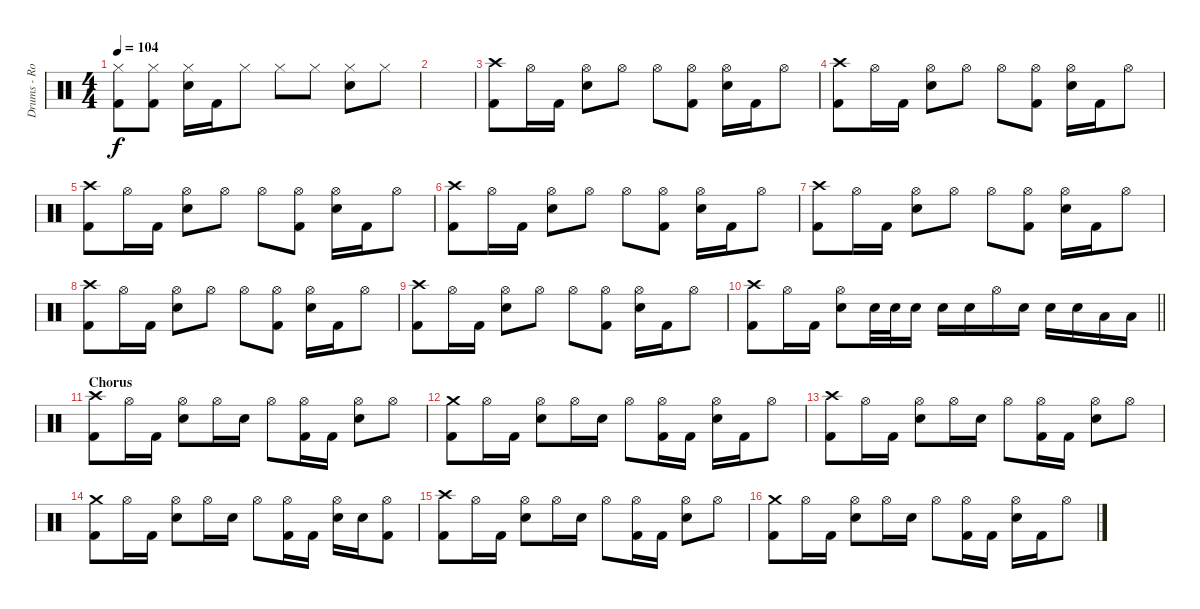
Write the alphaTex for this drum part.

\track ("Drums - Rob Bourdon" "Drums - Ro") {instrument percussion}
\staff {score}
\articulation defaults
\ts (4 4)
\tempo 104
\clef neutral
\ks c
("Hi-Hat (closed)" "Kick (hit) 2").8{dy f} ("Hi-Hat (closed)" "Kick (hit) 2").8 ("Hi-Hat (closed)" "Snare (hit) 2").16 "Kick (hit) 2".16 "Hi-Hat (closed)".8 "Hi-Hat (closed)".8 "Hi-Hat (closed)".8 ("Hi-Hat (closed)" "Snare (hit) 2").8 "Hi-Hat (closed)".8 |
|
("Crash high (hit)" "Kick (hit) 2").8 "Hi-Hat (open)".16 "Kick (hit) 2".16 ("Hi-Hat (open)" "Snare (hit) 2").8 "Hi-Hat (open)".8 "Hi-Hat (open)".8 ("Hi-Hat (open)" "Kick (hit) 2").8 ("Hi-Hat (open)" "Snare (hit) 2").16 "Kick (hit) 2".16 "Hi-Hat (open)".8 |
("Crash high (hit)" "Kick (hit) 2").8 "Hi-Hat (open)".16 "Kick (hit) 2".16 ("Hi-Hat (open)" "Snare (hit) 2").8 "Hi-Hat (open)".8 "Hi-Hat (open)".8 ("Hi-Hat (open)" "Kick (hit) 2").8 ("Hi-Hat (open)" "Snare (hit) 2").16 "Kick (hit) 2".16 "Hi-Hat (open)".8 |
("Crash high (hit)" "Kick (hit) 2").8 "Hi-Hat (open)".16 "Kick (hit) 2".16 ("Hi-Hat (open)" "Snare (hit) 2").8 "Hi-Hat (open)".8 "Hi-Hat (open)".8 ("Hi-Hat (open)" "Kick (hit) 2").8 ("Hi-Hat (open)" "Snare (hit) 2").16 "Kick (hit) 2".16 "Hi-Hat (open)".8 |
("Crash high (hit)" "Kick (hit) 2").8 "Hi-Hat (open)".16 "Kick (hit) 2".16 ("Hi-Hat (open)" "Snare (hit) 2").8 "Hi-Hat (open)".8 "Hi-Hat (open)".8 ("Hi-Hat (open)" "Kick (hit) 2").8 ("Hi-Hat (open)" "Snare (hit) 2").16 "Kick (hit) 2".16 "Hi-Hat (open)".8 |
("Crash high (hit)" "Kick (hit) 2").8 "Hi-Hat (open)".16 "Kick (hit) 2".16 ("Hi-Hat (open)" "Snare (hit) 2").8 "Hi-Hat (open)".8 "Hi-Hat (open)".8 ("Hi-Hat (open)" "Kick (hit) 2").8 ("Hi-Hat (open)" "Snare (hit) 2").16 "Kick (hit) 2".16 "Hi-Hat (open)".8 |
("Crash high (hit)" "Kick (hit) 2").8 "Hi-Hat (open)".16 "Kick (hit) 2".16 ("Hi-Hat (open)" "Snare (hit) 2").8 "Hi-Hat (open)".8 "Hi-Hat (open)".8 ("Hi-Hat (open)" "Kick (hit) 2").8 ("Hi-Hat (open)" "Snare (hit) 2").16 "Kick (hit) 2".16 "Hi-Hat (open)".8 |
("Crash high (hit)" "Kick (hit) 2").8 "Hi-Hat (open)".16 "Kick (hit) 2".16 ("Hi-Hat (open)" "Snare (hit) 2").8 "Hi-Hat (open)".8 "Hi-Hat (open)".8 ("Hi-Hat (open)" "Kick (hit) 2").8 ("Hi-Hat (open)" "Snare (hit) 2").16 "Kick (hit) 2".16 "Hi-Hat (open)".8 |
\barLineRight lightlight
("Crash high (hit)" "Kick (hit) 2").8 "Hi-Hat (open)".16 "Kick (hit) 2".16 ("Hi-Hat (open)" "Snare (hit) 2").8 "Snare (hit) 2".32 "Snare (hit) 2".32 "Snare (hit) 2".16 "Snare (hit) 2".16 "Snare (hit) 2".16 "Hi-Hat (open)".16 "Snare (hit) 2".16 "Snare (hit) 2".16 "Snare (hit) 2".16 "Low Tom (hit)".16 "Low Tom (hit)".16 |
\section ("" "Chorus")
("Crash high (hit)" "Kick (hit) 2").8 "Hi-Hat (open)".16 "Kick (hit) 2".16 ("Hi-Hat (open)" "Snare (hit) 2").8 "Hi-Hat (open)".16 "Snare (hit) 2".16 "Hi-Hat (open)".8 ("Hi-Hat (open)" "Kick (hit) 2").16 "Kick (hit) 2".16 ("Hi-Hat (open)" "Snare (hit) 2").8 "Hi-Hat (open)".8 |
("Crash medium (hit)" "Kick (hit) 2").8 "Hi-Hat (open)".16 "Kick (hit) 2".16 ("Hi-Hat (open)" "Snare (hit) 2").8 "Hi-Hat (open)".16 "Snare (hit) 2".16 "Hi-Hat (open)".8 ("Hi-Hat (open)" "Kick (hit) 2").16 "Kick (hit) 2".16 ("Hi-Hat (open)" "Snare (hit) 2").16 "Kick (hit) 2".16 "Hi-Hat (open)".8 |
("Crash high (hit)" "Kick (hit) 2").8 "Hi-Hat (open)".16 "Kick (hit) 2".16 ("Hi-Hat (open)" "Snare (hit) 2").8 "Hi-Hat (open)".16 "Snare (hit) 2".16 "Hi-Hat (open)".8 ("Hi-Hat (open)" "Kick (hit) 2").16 "Kick (hit) 2".16 ("Hi-Hat (open)" "Snare (hit) 2").8 "Hi-Hat (open)".8 |
("Crash medium (hit)" "Kick (hit) 2").8 "Hi-Hat (open)".16 "Kick (hit) 2".16 ("Hi-Hat (open)" "Snare (hit) 2").8 "Hi-Hat (open)".16 "Snare (hit) 2".16 "Hi-Hat (open)".8 ("Hi-Hat (open)" "Kick (hit) 2").16 "Kick (hit) 2".16 ("Hi-Hat (open)" "Snare (hit) 2").16 "Snare (hit) 2".16 ("Hi-Hat (open)" "Kick (hit) 2").8 |
("Crash high (hit)" "Kick (hit) 2").8 "Hi-Hat (open)".16 "Kick (hit) 2".16 ("Hi-Hat (open)" "Snare (hit) 2").8 "Hi-Hat (open)".16 "Snare (hit) 2".16 "Hi-Hat (open)".8 ("Hi-Hat (open)" "Kick (hit) 2").16 "Kick (hit) 2".16 ("Hi-Hat (open)" "Snare (hit) 2").8 "Hi-Hat (open)".8 |
("Crash medium (hit)" "Kick (hit) 2").8 "Hi-Hat (open)".16 "Kick (hit) 2".16 ("Hi-Hat (open)" "Snare (hit) 2").8 "Hi-Hat (open)".16 "Snare (hit) 2".16 "Hi-Hat (open)".8 ("Hi-Hat (open)" "Kick (hit) 2").16 "Kick (hit) 2".16 ("Hi-Hat (open)" "Snare (hit) 2").16 "Kick (hit) 2".16 "Hi-Hat (open)".8
